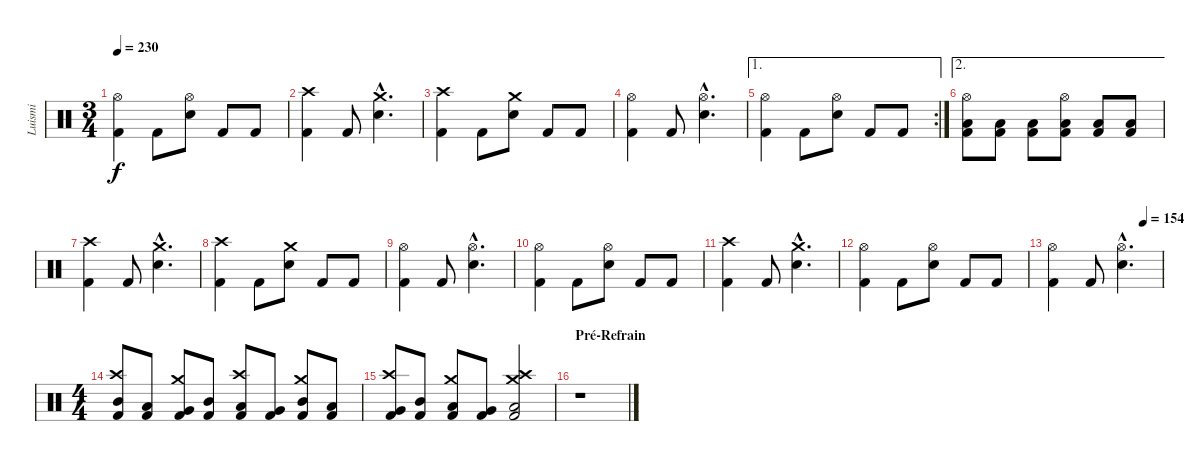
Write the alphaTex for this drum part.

\track ("Luismi" "Luismi") {instrument percussion}
\staff {score}
\articulation defaults
\ts (3 4)
\tempo 230
\clef neutral
\ks c
("Hi-Hat (open)" "Kick (hit) 2").4{dy f} "Kick (hit) 2".8 ("Hi-Hat (open)" "Electric Snare (hit)").8 "Kick (hit) 2".8 "Kick (hit) 2".8 |
("Crash high (hit)" "Kick (hit) 2").4 "Kick (hit) 2".8 ("Crash medium (hit)"{hac} "Electric Snare (hit)"{hac}).4{d} |
("Crash high (hit)" "Kick (hit) 2").4 "Kick (hit) 2".8 ("Crash medium (hit)" "Electric Snare (hit)").8 "Kick (hit) 2".8 "Kick (hit) 2".8 |
("Hi-Hat (open)" "Kick (hit) 2").4 "Kick (hit) 2".8 ("Hi-Hat (open)"{hac} "Electric Snare (hit)"{hac}).4{d} |
\ae 1
\rc 2
("Hi-Hat (open)" "Kick (hit) 2").4 "Kick (hit) 2".8 ("Hi-Hat (open)" "Electric Snare (hit)").8 "Kick (hit) 2".8 "Kick (hit) 2".8 |
\ae 2
("Hi-Hat (open)" "Low Tom (hit)" "Kick (hit) 2").8 ("Low Tom (hit)" "Kick (hit) 2").8 ("Low Tom (hit)" "Kick (hit) 2").8 ("Hi-Hat (open)" "Low Floor Tom (hit)" "Kick (hit) 2").8 ("Low Floor Tom (hit)" "Kick (hit) 2").8 ("Low Floor Tom (hit)" "Kick (hit) 2").8 |
\section ("" "")
("Crash high (hit)" "Kick (hit) 2").4 "Kick (hit) 2".8 ("Crash medium (hit)"{hac} "Electric Snare (hit)"{hac}).4{d} |
("Crash high (hit)" "Kick (hit) 2").4 "Kick (hit) 2".8 ("Crash medium (hit)" "Electric Snare (hit)").8 "Kick (hit) 2".8 "Kick (hit) 2".8 |
("Hi-Hat (open)" "Kick (hit) 2").4 "Kick (hit) 2".8 ("Hi-Hat (open)"{hac} "Electric Snare (hit)"{hac}).4{d} |
("Hi-Hat (open)" "Kick (hit) 2").4 "Kick (hit) 2".8 ("Hi-Hat (open)" "Electric Snare (hit)").8 "Kick (hit) 2".8 "Kick (hit) 2".8 |
("Crash high (hit)" "Kick (hit) 2").4 "Kick (hit) 2".8 ("Crash medium (hit)"{hac} "Electric Snare (hit)"{hac}).4{d} |
("Hi-Hat (open)" "Kick (hit) 2").4 "Kick (hit) 2".8 ("Hi-Hat (open)" "Electric Snare (hit)").8 "Kick (hit) 2".8 "Kick (hit) 2".8 |
\tempo (154 0.8333333333333334)
("Hi-Hat (open)" "Kick (hit) 2").4 "Kick (hit) 2".8 ("Hi-Hat (open)"{hac} "Electric Snare (hit)"{hac}).4{d} |
\ts (4 4)
("Crash high (hit)" "Mid Tom (hit)" "Kick (hit) 2").8 ("Low Tom (hit)" "Kick (hit) 2").8 ("Crash medium (hit)" "Very Low Tom (hit)" "Kick (hit) 2").8 ("Mid Tom (hit)" "Kick (hit) 2").8 ("Crash high (hit)" "Low Tom (hit)" "Kick (hit) 2").8 ("Very Low Tom (hit)" "Kick (hit) 2").8 ("Crash medium (hit)" "Mid Tom (hit)" "Kick (hit) 2").8 ("Low Tom (hit)" "Kick (hit) 2").8 |
("Crash high (hit)" "Very Low Tom (hit)" "Kick (hit) 2").8 ("Mid Tom (hit)" "Kick (hit) 2").8 ("Crash medium (hit)" "Low Tom (hit)" "Kick (hit) 2").8 ("Very Low Tom (hit)" "Kick (hit) 2").8 ("Crash high (hit)" "Crash medium (hit)" "Low Floor Tom (hit)" "Kick (hit) 2").2 |
\section ("" "Pré-Refrain")
r.1
